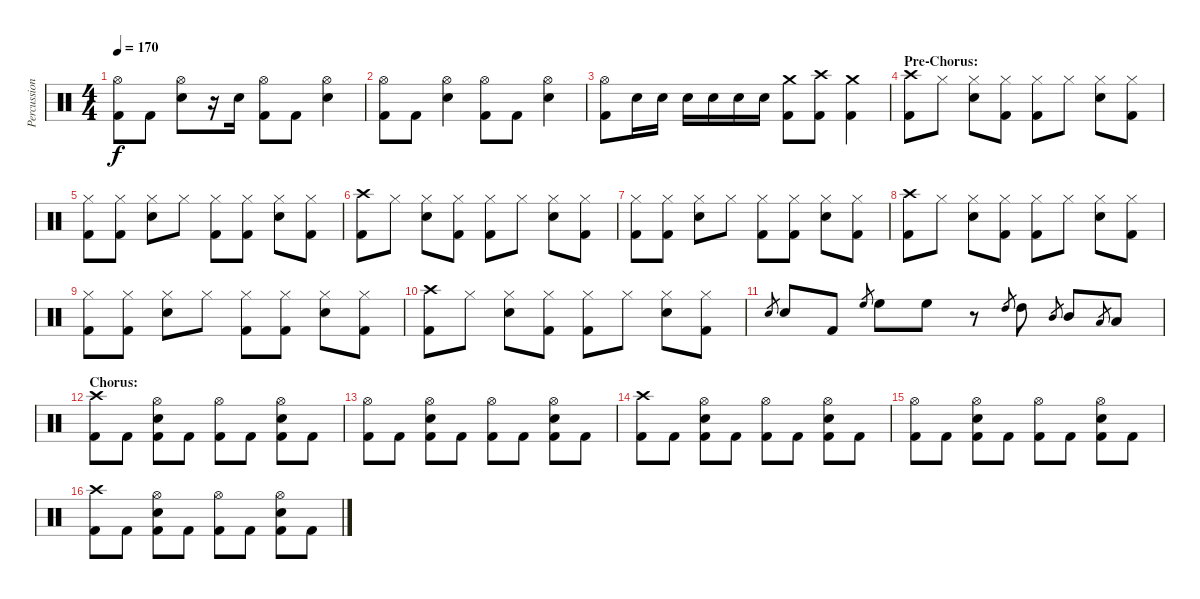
\track ("Percussion" "Percussion") {instrument percussion}
\staff {score}
\articulation defaults
\ts (4 4)
\tempo 170
\clef neutral
\ks c
("Hi-Hat (open)" "Kick (hit) 2").8{dy f} "Kick (hit) 2".8 ("Hi-Hat (open)" "Snare (hit) 2").8 r.16 "Snare (hit) 2".16 ("Hi-Hat (open)" "Kick (hit) 2").8 "Kick (hit) 2".8 ("Hi-Hat (open)" "Snare (hit) 2").4 |
("Hi-Hat (open)" "Kick (hit) 2").8 "Kick (hit) 2".8 ("Hi-Hat (open)" "Snare (hit) 2").4 ("Hi-Hat (open)" "Kick (hit) 2").8 "Kick (hit) 2".8 ("Hi-Hat (open)" "Snare (hit) 2").4 |
("Hi-Hat (open)" "Kick (hit) 2").8 "Snare (hit) 2".16 "Snare (hit) 2".16 "Snare (hit) 2".16 "Snare (hit) 2".16 "Snare (hit) 2".16 "Snare (hit) 2".16 ("Crash medium (hit)" "Kick (hit) 2").8 ("Crash high (hit)" "Kick (hit) 2").8 ("Crash medium (hit)" "Kick (hit) 2").4 |
\section ("" "Pre-Chorus:")
("Crash high (hit)" "Kick (hit) 2").8 "Hi-Hat (closed)".8 ("Hi-Hat (closed)" "Snare (hit) 2").8 ("Hi-Hat (closed)" "Kick (hit) 2").8 ("Hi-Hat (closed)" "Kick (hit) 2").8 "Hi-Hat (closed)".8 ("Hi-Hat (closed)" "Snare (hit) 2").8 ("Hi-Hat (closed)" "Kick (hit) 2").8 |
("Hi-Hat (closed)" "Kick (hit) 2").8 ("Hi-Hat (closed)" "Kick (hit) 2").8 ("Hi-Hat (closed)" "Snare (hit) 2").8 "Hi-Hat (closed)".8 ("Hi-Hat (closed)" "Kick (hit) 2").8 ("Hi-Hat (closed)" "Kick (hit) 2").8 ("Hi-Hat (closed)" "Snare (hit) 2").8 ("Hi-Hat (closed)" "Kick (hit) 2").8 |
("Crash high (hit)" "Kick (hit) 2").8 "Hi-Hat (closed)".8 ("Hi-Hat (closed)" "Snare (hit) 2").8 ("Hi-Hat (closed)" "Kick (hit) 2").8 ("Hi-Hat (closed)" "Kick (hit) 2").8 "Hi-Hat (closed)".8 ("Hi-Hat (closed)" "Snare (hit) 2").8 ("Hi-Hat (closed)" "Kick (hit) 2").8 |
("Hi-Hat (closed)" "Kick (hit) 2").8 ("Hi-Hat (closed)" "Kick (hit) 2").8 ("Hi-Hat (closed)" "Snare (hit) 2").8 "Hi-Hat (closed)".8 ("Hi-Hat (closed)" "Kick (hit) 2").8 ("Hi-Hat (closed)" "Kick (hit) 2").8 ("Hi-Hat (closed)" "Snare (hit) 2").8 ("Hi-Hat (closed)" "Kick (hit) 2").8 |
("Crash high (hit)" "Kick (hit) 2").8 "Hi-Hat (closed)".8 ("Hi-Hat (closed)" "Snare (hit) 2").8 ("Hi-Hat (closed)" "Kick (hit) 2").8 ("Hi-Hat (closed)" "Kick (hit) 2").8 "Hi-Hat (closed)".8 ("Hi-Hat (closed)" "Snare (hit) 2").8 ("Hi-Hat (closed)" "Kick (hit) 2").8 |
("Hi-Hat (closed)" "Kick (hit) 2").8 ("Hi-Hat (closed)" "Kick (hit) 2").8 ("Hi-Hat (closed)" "Snare (hit) 2").8 "Hi-Hat (closed)".8 ("Hi-Hat (closed)" "Kick (hit) 2").8 ("Hi-Hat (closed)" "Kick (hit) 2").8 ("Hi-Hat (closed)" "Snare (hit) 2").8 ("Hi-Hat (closed)" "Kick (hit) 2").8 |
("Crash high (hit)" "Kick (hit) 2").8 "Hi-Hat (closed)".8 ("Hi-Hat (closed)" "Snare (hit) 2").8 ("Hi-Hat (closed)" "Kick (hit) 2").8 ("Hi-Hat (closed)" "Kick (hit) 2").8 "Hi-Hat (closed)".8 ("Hi-Hat (closed)" "Snare (hit) 2").8 ("Hi-Hat (closed)" "Kick (hit) 2").8 |
"Snare (hit) 2".8{gr} "Snare (hit) 2".8 "Kick (hit) 2".8 "High Floor Tom (hit)".8{gr} "High Floor Tom (hit)".8 "High Floor Tom (hit)".8 r.8 "High Tom (hit)".8{gr} "High Tom (hit)".8 "Mid Tom (hit)".8{gr} "Mid Tom (hit)".8 "Low Tom (hit)".8{gr} "Low Tom (hit)".8 |
\section ("" "Chorus:")
("Crash high (hit)" "Kick (hit) 2").8 "Kick (hit) 2".8 ("Hi-Hat (open)" "Snare (hit) 2" "Kick (hit) 2").8 "Kick (hit) 2".8 ("Hi-Hat (open)" "Kick (hit) 2").8 "Kick (hit) 2".8 ("Hi-Hat (open)" "Snare (hit) 2" "Kick (hit) 2").8 "Kick (hit) 2".8 |
("Hi-Hat (open)" "Kick (hit) 2").8 "Kick (hit) 2".8 ("Hi-Hat (open)" "Snare (hit) 2" "Kick (hit) 2").8 "Kick (hit) 2".8 ("Hi-Hat (open)" "Kick (hit) 2").8 "Kick (hit) 2".8 ("Hi-Hat (open)" "Snare (hit) 2" "Kick (hit) 2").8 "Kick (hit) 2".8 |
("Crash high (hit)" "Kick (hit) 2").8 "Kick (hit) 2".8 ("Hi-Hat (open)" "Snare (hit) 2" "Kick (hit) 2").8 "Kick (hit) 2".8 ("Hi-Hat (open)" "Kick (hit) 2").8 "Kick (hit) 2".8 ("Hi-Hat (open)" "Snare (hit) 2" "Kick (hit) 2").8 "Kick (hit) 2".8 |
("Hi-Hat (open)" "Kick (hit) 2").8 "Kick (hit) 2".8 ("Hi-Hat (open)" "Snare (hit) 2" "Kick (hit) 2").8 "Kick (hit) 2".8 ("Hi-Hat (open)" "Kick (hit) 2").8 "Kick (hit) 2".8 ("Hi-Hat (open)" "Snare (hit) 2" "Kick (hit) 2").8 "Kick (hit) 2".8 |
("Crash high (hit)" "Kick (hit) 2").8 "Kick (hit) 2".8 ("Hi-Hat (open)" "Snare (hit) 2" "Kick (hit) 2").8 "Kick (hit) 2".8 ("Hi-Hat (open)" "Kick (hit) 2").8 "Kick (hit) 2".8 ("Hi-Hat (open)" "Snare (hit) 2" "Kick (hit) 2").8 "Kick (hit) 2".8
